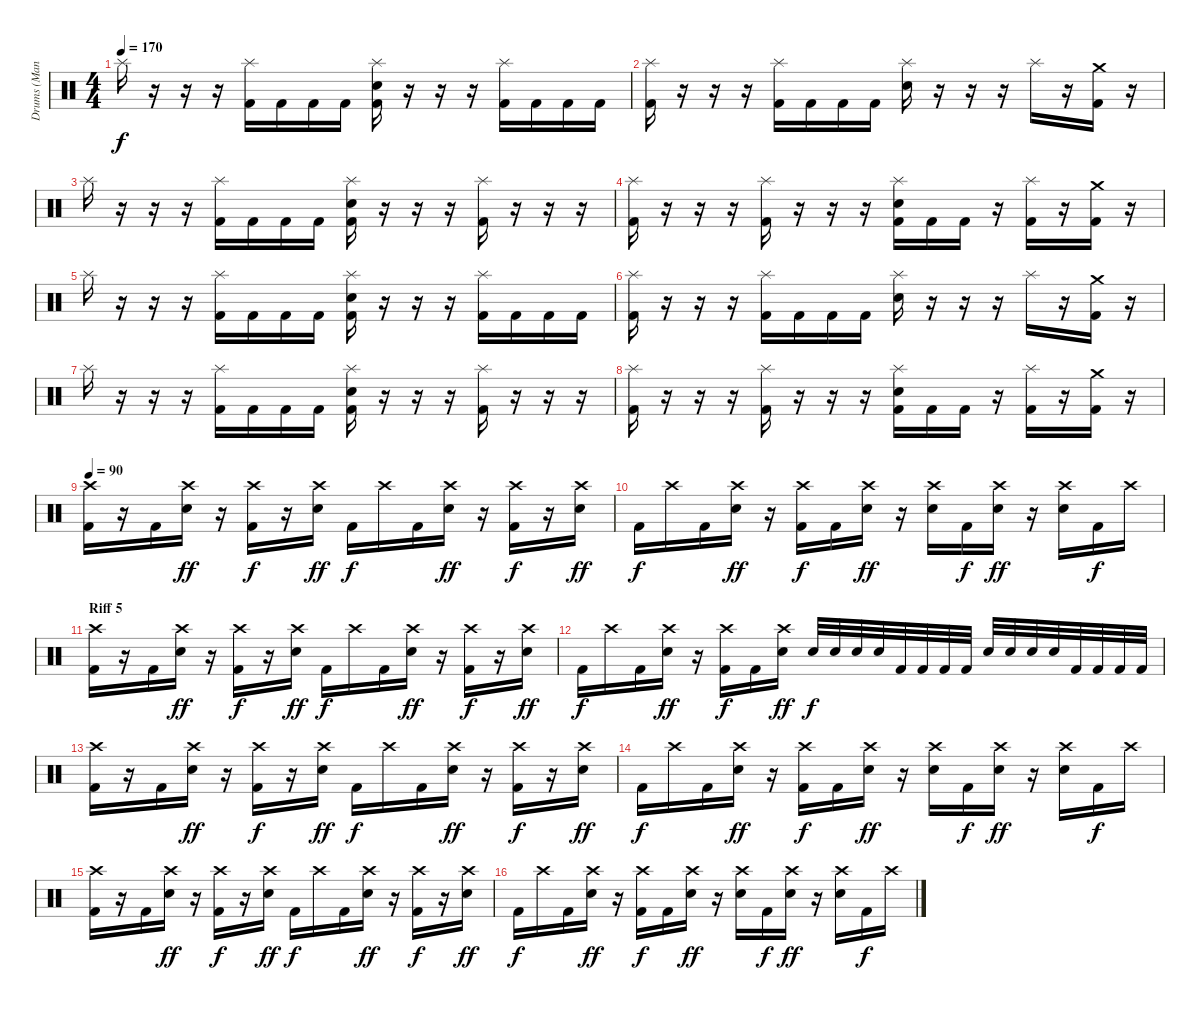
\track ("Drums (Mancino)" "Drums (Man") {instrument percussion}
\staff {score}
\articulation defaults
\ts (4 4)
\tempo 170
\clef neutral
\ks c "Splash (hit)".16{dy f}
r.16 r.16 r.16 ("Splash (hit)" "Kick (hit) 2").16 "Kick (hit) 2".16 "Kick (hit) 2".16 "Kick (hit) 2".16 ("Splash (hit)" "Electric Snare (hit)" "Kick (hit) 2").16 r.16 r.16 r.16 ("Splash (hit)" "Kick (hit) 2").16 "Kick (hit) 2".16 "Kick (hit) 2".16 "Kick (hit) 2".16 |
("Splash (hit)" "Kick (hit) 2").16 r.16 r.16 r.16 ("Splash (hit)" "Kick (hit) 2").16 "Kick (hit) 2".16 "Kick (hit) 2".16 "Kick (hit) 2".16 ("Splash (hit)" "Electric Snare (hit)").16 r.16 r.16 r.16 "Splash (hit)".16 r.16 ("Crash medium (hit)" "Kick (hit) 2").16 r.16 |
"Splash (hit)".16 r.16 r.16 r.16 ("Splash (hit)" "Kick (hit) 2").16 "Kick (hit) 2".16 "Kick (hit) 2".16 "Kick (hit) 2".16 ("Splash (hit)" "Electric Snare (hit)" "Kick (hit) 2").16 r.16 r.16 r.16 ("Splash (hit)" "Kick (hit) 2").16 r.16 r.16 r.16 |
("Splash (hit)" "Kick (hit) 2").16 r.16 r.16 r.16 ("Splash (hit)" "Kick (hit) 2").16 r.16 r.16 r.16 ("Splash (hit)" "Electric Snare (hit)" "Kick (hit) 2").16 "Kick (hit) 2".16 "Kick (hit) 2".16 r.16 ("Splash (hit)" "Kick (hit) 2").16 r.16 ("Crash medium (hit)" "Kick (hit) 2").16 r.16 |
"Splash (hit)".16 r.16 r.16 r.16 ("Splash (hit)" "Kick (hit) 2").16 "Kick (hit) 2".16 "Kick (hit) 2".16 "Kick (hit) 2".16 ("Splash (hit)" "Electric Snare (hit)" "Kick (hit) 2").16 r.16 r.16 r.16 ("Splash (hit)" "Kick (hit) 2").16 "Kick (hit) 2".16 "Kick (hit) 2".16 "Kick (hit) 2".16 |
("Splash (hit)" "Kick (hit) 2").16 r.16 r.16 r.16 ("Splash (hit)" "Kick (hit) 2").16 "Kick (hit) 2".16 "Kick (hit) 2".16 "Kick (hit) 2".16 ("Splash (hit)" "Electric Snare (hit)").16 r.16 r.16 r.16 "Splash (hit)".16 r.16 ("Crash medium (hit)" "Kick (hit) 2").16 r.16 |
"Splash (hit)".16 r.16 r.16 r.16 ("Splash (hit)" "Kick (hit) 2").16 "Kick (hit) 2".16 "Kick (hit) 2".16 "Kick (hit) 2".16 ("Splash (hit)" "Electric Snare (hit)" "Kick (hit) 2").16 r.16 r.16 r.16 ("Splash (hit)" "Kick (hit) 2").16 r.16 r.16 r.16 |
("Splash (hit)" "Kick (hit) 2").16 r.16 r.16 r.16 ("Splash (hit)" "Kick (hit) 2").16 r.16 r.16 r.16 ("Splash (hit)" "Electric Snare (hit)" "Kick (hit) 2").16 "Kick (hit) 2".16 "Kick (hit) 2".16 r.16 ("Splash (hit)" "Kick (hit) 2").16 r.16 ("Crash medium (hit)" "Kick (hit) 2").16 r.16 |
\tempo 90
("Crash high (hit)" "Kick (hit) 2").16 r.16 "Kick (hit) 2".16 ("Crash high (hit)" "Electric Snare (hit)").16{dy ff} r.16 ("Crash high (hit)" "Kick (hit) 2").16{dy f} r.16 ("Crash high (hit)" "Electric Snare (hit)").16{dy ff} "Kick (hit) 2".16{dy f} "Crash high (hit)".16 "Kick (hit) 2".16 ("Crash high (hit)" "Electric Snare (hit)").16{dy ff} r.16 ("Crash high (hit)" "Kick (hit) 2").16{dy f} r.16 ("Crash high (hit)" "Electric Snare (hit)").16{dy ff} |
"Kick (hit) 2".16{dy f} "Crash high (hit)".16 "Kick (hit) 2".16 ("Crash high (hit)" "Electric Snare (hit)").16{dy ff} r.16 ("Crash high (hit)" "Kick (hit) 2").16{dy f} "Kick (hit) 2".16 ("Crash high (hit)" "Electric Snare (hit)").16{dy ff} r.16 ("Crash high (hit)" "Electric Snare (hit)").16 "Kick (hit) 2".16{dy f} ("Crash high (hit)" "Electric Snare (hit)").16{dy ff} r.16 ("Crash high (hit)" "Electric Snare (hit)").16 "Kick (hit) 2".16{dy f} "Crash high (hit)".16 |
\section ("" "Riff 5")
("Crash high (hit)" "Kick (hit) 2").16 r.16 "Kick (hit) 2".16 ("Crash high (hit)" "Electric Snare (hit)").16{dy ff} r.16 ("Crash high (hit)" "Kick (hit) 2").16{dy f} r.16 ("Crash high (hit)" "Electric Snare (hit)").16{dy ff} "Kick (hit) 2".16{dy f} "Crash high (hit)".16 "Kick (hit) 2".16 ("Crash high (hit)" "Electric Snare (hit)").16{dy ff} r.16 ("Crash high (hit)" "Kick (hit) 2").16{dy f} r.16 ("Crash high (hit)" "Electric Snare (hit)").16{dy ff} |
"Kick (hit) 2".16{dy f} "Crash high (hit)".16 "Kick (hit) 2".16 ("Crash high (hit)" "Electric Snare (hit)").16{dy ff} r.16 ("Crash high (hit)" "Kick (hit) 2").16{dy f} "Kick (hit) 2".16 ("Crash high (hit)" "Electric Snare (hit)").16{dy ff} "Electric Snare (hit)".32{dy f} "Electric Snare (hit)".32 "Electric Snare (hit)".32 "Electric Snare (hit)".32 "Kick (hit) 2".32 "Kick (hit) 2".32 "Kick (hit) 2".32 "Kick (hit) 2".32 "Electric Snare (hit)".32 "Electric Snare (hit)".32 "Electric Snare (hit)".32 "Electric Snare (hit)".32 "Kick (hit) 2".32 "Kick (hit) 2".32 "Kick (hit) 2".32 "Kick (hit) 2".32 |
("Crash high (hit)" "Kick (hit) 2").16 r.16 "Kick (hit) 2".16 ("Crash high (hit)" "Electric Snare (hit)").16{dy ff} r.16 ("Crash high (hit)" "Kick (hit) 2").16{dy f} r.16 ("Crash high (hit)" "Electric Snare (hit)").16{dy ff} "Kick (hit) 2".16{dy f} "Crash high (hit)".16 "Kick (hit) 2".16 ("Crash high (hit)" "Electric Snare (hit)").16{dy ff} r.16 ("Crash high (hit)" "Kick (hit) 2").16{dy f} r.16 ("Crash high (hit)" "Electric Snare (hit)").16{dy ff} |
"Kick (hit) 2".16{dy f} "Crash high (hit)".16 "Kick (hit) 2".16 ("Crash high (hit)" "Electric Snare (hit)").16{dy ff} r.16 ("Crash high (hit)" "Kick (hit) 2").16{dy f} "Kick (hit) 2".16 ("Crash high (hit)" "Electric Snare (hit)").16{dy ff} r.16 ("Crash high (hit)" "Electric Snare (hit)").16 "Kick (hit) 2".16{dy f} ("Crash high (hit)" "Electric Snare (hit)").16{dy ff} r.16 ("Crash high (hit)" "Electric Snare (hit)").16 "Kick (hit) 2".16{dy f} "Crash high (hit)".16 |
("Crash high (hit)" "Kick (hit) 2").16 r.16 "Kick (hit) 2".16 ("Crash high (hit)" "Electric Snare (hit)").16{dy ff} r.16 ("Crash high (hit)" "Kick (hit) 2").16{dy f} r.16 ("Crash high (hit)" "Electric Snare (hit)").16{dy ff} "Kick (hit) 2".16{dy f} "Crash high (hit)".16 "Kick (hit) 2".16 ("Crash high (hit)" "Electric Snare (hit)").16{dy ff} r.16 ("Crash high (hit)" "Kick (hit) 2").16{dy f} r.16 ("Crash high (hit)" "Electric Snare (hit)").16{dy ff} |
"Kick (hit) 2".16{dy f} "Crash high (hit)".16 "Kick (hit) 2".16 ("Crash high (hit)" "Electric Snare (hit)").16{dy ff} r.16 ("Crash high (hit)" "Kick (hit) 2").16{dy f} "Kick (hit) 2".16 ("Crash high (hit)" "Electric Snare (hit)").16{dy ff} r.16 ("Crash high (hit)" "Electric Snare (hit)").16 "Kick (hit) 2".16{dy f} ("Crash high (hit)" "Electric Snare (hit)").16{dy ff} r.16 ("Crash high (hit)" "Electric Snare (hit)").16 "Kick (hit) 2".16{dy f} "Crash high (hit)".16
